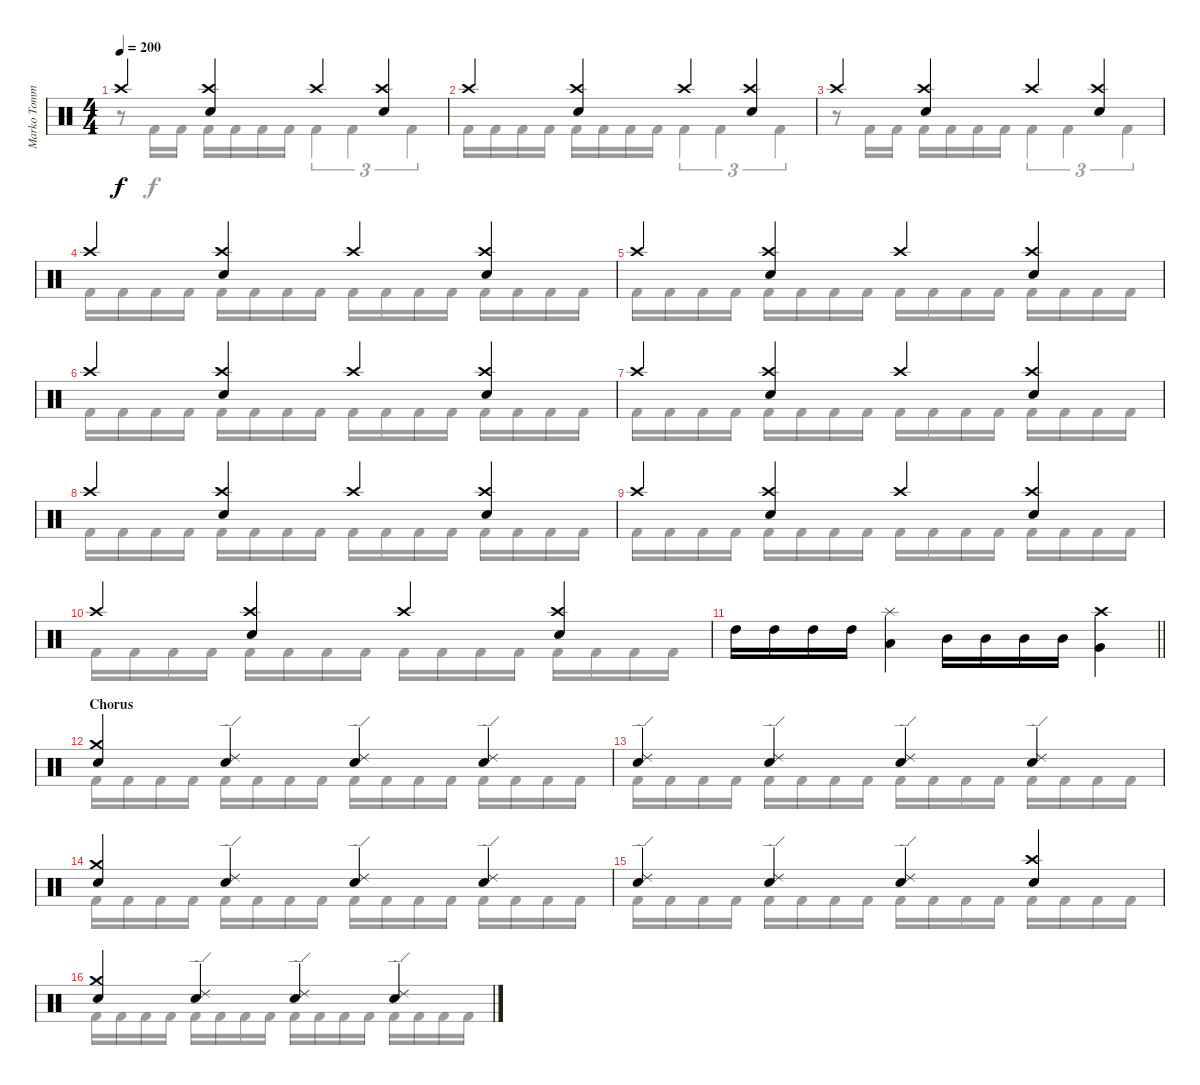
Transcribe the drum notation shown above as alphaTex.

\track ("Marko Tommila (drums)" "Marko Tomm") {instrument percussion}
\staff {score}
\articulation defaults
\voice
\ts (4 4)
\tempo 200
\clef neutral
\ks c "Crash high (hit)".4{dy f}
("Crash high (hit)" "Electric Snare (hit)").4 "Crash high (hit)".4 ("Crash high (hit)" "Electric Snare (hit)").4 |
"Crash high (hit)".4 ("Crash high (hit)" "Electric Snare (hit)").4 "Crash high (hit)".4 ("Crash high (hit)" "Electric Snare (hit)").4 |
"Crash high (hit)".4 ("Crash high (hit)" "Electric Snare (hit)").4 "Crash high (hit)".4 ("Crash high (hit)" "Electric Snare (hit)").4 |
"Crash high (hit)".4 ("Crash high (hit)" "Electric Snare (hit)").4 "Crash high (hit)".4 ("Crash high (hit)" "Electric Snare (hit)").4 |
"Crash high (hit)".4 ("Crash high (hit)" "Electric Snare (hit)").4 "Crash high (hit)".4 ("Crash high (hit)" "Electric Snare (hit)").4 |
"Crash high (hit)".4 ("Crash high (hit)" "Electric Snare (hit)").4 "Crash high (hit)".4 ("Crash high (hit)" "Electric Snare (hit)").4 |
"Crash high (hit)".4 ("Crash high (hit)" "Electric Snare (hit)").4 "Crash high (hit)".4 ("Crash high (hit)" "Electric Snare (hit)").4 |
"Crash high (hit)".4 ("Crash high (hit)" "Electric Snare (hit)").4 "Crash high (hit)".4 ("Crash high (hit)" "Electric Snare (hit)").4 |
"Crash high (hit)".4 ("Crash high (hit)" "Electric Snare (hit)").4 "Crash high (hit)".4 ("Crash high (hit)" "Electric Snare (hit)").4 |
"Crash high (hit)".4 ("Crash high (hit)" "Electric Snare (hit)").4 "Crash high (hit)".4 ("Crash high (hit)" "Electric Snare (hit)").4 |
\barLineRight lightlight "High Tom (hit)".16 "High Tom (hit)".16 "High Tom (hit)".16 "High Tom (hit)".16
("Splash (hit)" "Low Tom (hit)").4 "Mid Tom (hit)".16 "Mid Tom (hit)".16 "Mid Tom (hit)".16 "Mid Tom (hit)".16 ("Crash high (hit)" "Very Low Tom (hit)").4 |
\section ("" "Chorus")
\ks aminor
("Crash medium (hit)" "Electric Snare (hit)").4 ("Ride (edge) 2" "Electric Snare (hit)").4 ("Ride (edge) 2" "Electric Snare (hit)").4 ("Ride (edge) 2" "Electric Snare (hit)").4 |
("Ride (edge) 2" "Electric Snare (hit)").4 ("Ride (edge) 2" "Electric Snare (hit)").4 ("Ride (edge) 2" "Electric Snare (hit)").4 ("Ride (edge) 2" "Electric Snare (hit)").4 |
("Crash medium (hit)" "Electric Snare (hit)").4 ("Ride (edge) 2" "Electric Snare (hit)").4 ("Ride (edge) 2" "Electric Snare (hit)").4 ("Ride (edge) 2" "Electric Snare (hit)").4 |
("Ride (edge) 2" "Electric Snare (hit)").4 ("Ride (edge) 2" "Electric Snare (hit)").4 ("Ride (edge) 2" "Electric Snare (hit)").4 ("Crash high (hit)" "Electric Snare (hit)").4 |
("Crash medium (hit)" "Electric Snare (hit)").4 ("Ride (edge) 2" "Electric Snare (hit)").4 ("Ride (edge) 2" "Electric Snare (hit)").4 ("Ride (edge) 2" "Electric Snare (hit)").4
\voice
\clef neutral
\ottava regular
\simile none
\ks c
r.8{dy f} "Kick (hit) 2".16 "Kick (hit) 2".16 "Kick (hit) 2".16 "Kick (hit) 2".16 "Kick (hit) 2".16 "Kick (hit) 2".16 "Kick (hit) 2".4{tu (3 2)} "Kick (hit) 2".4{tu (3 2)} "Kick (hit) 2".4{tu (3 2)} |
"Kick (hit) 2".16 "Kick (hit) 2".16 "Kick (hit) 2".16 "Kick (hit) 2".16 "Kick (hit) 2".16 "Kick (hit) 2".16 "Kick (hit) 2".16 "Kick (hit) 2".16 "Kick (hit) 2".4{tu (3 2)} "Kick (hit) 2".4{tu (3 2)} "Kick (hit) 2".4{tu (3 2)} |
r.8 "Kick (hit) 2".16 "Kick (hit) 2".16 "Kick (hit) 2".16 "Kick (hit) 2".16 "Kick (hit) 2".16 "Kick (hit) 2".16 "Kick (hit) 2".4{tu (3 2)} "Kick (hit) 2".4{tu (3 2)} "Kick (hit) 2".4{tu (3 2)} |
"Kick (hit) 2".16 "Kick (hit) 2".16 "Kick (hit) 2".16 "Kick (hit) 2".16 "Kick (hit) 2".16 "Kick (hit) 2".16 "Kick (hit) 2".16 "Kick (hit) 2".16 "Kick (hit) 2".16 "Kick (hit) 2".16 "Kick (hit) 2".16 "Kick (hit) 2".16 "Kick (hit) 2".16 "Kick (hit) 2".16 "Kick (hit) 2".16 "Kick (hit) 2".16 |
"Kick (hit) 2".16 "Kick (hit) 2".16 "Kick (hit) 2".16 "Kick (hit) 2".16 "Kick (hit) 2".16 "Kick (hit) 2".16 "Kick (hit) 2".16 "Kick (hit) 2".16 "Kick (hit) 2".16 "Kick (hit) 2".16 "Kick (hit) 2".16 "Kick (hit) 2".16 "Kick (hit) 2".16 "Kick (hit) 2".16 "Kick (hit) 2".16 "Kick (hit) 2".16 |
"Kick (hit) 2".16 "Kick (hit) 2".16 "Kick (hit) 2".16 "Kick (hit) 2".16 "Kick (hit) 2".16 "Kick (hit) 2".16 "Kick (hit) 2".16 "Kick (hit) 2".16 "Kick (hit) 2".16 "Kick (hit) 2".16 "Kick (hit) 2".16 "Kick (hit) 2".16 "Kick (hit) 2".16 "Kick (hit) 2".16 "Kick (hit) 2".16 "Kick (hit) 2".16 |
"Kick (hit) 2".16 "Kick (hit) 2".16 "Kick (hit) 2".16 "Kick (hit) 2".16 "Kick (hit) 2".16 "Kick (hit) 2".16 "Kick (hit) 2".16 "Kick (hit) 2".16 "Kick (hit) 2".16 "Kick (hit) 2".16 "Kick (hit) 2".16 "Kick (hit) 2".16 "Kick (hit) 2".16 "Kick (hit) 2".16 "Kick (hit) 2".16 "Kick (hit) 2".16 |
"Kick (hit) 2".16 "Kick (hit) 2".16 "Kick (hit) 2".16 "Kick (hit) 2".16 "Kick (hit) 2".16 "Kick (hit) 2".16 "Kick (hit) 2".16 "Kick (hit) 2".16 "Kick (hit) 2".16 "Kick (hit) 2".16 "Kick (hit) 2".16 "Kick (hit) 2".16 "Kick (hit) 2".16 "Kick (hit) 2".16 "Kick (hit) 2".16 "Kick (hit) 2".16 |
"Kick (hit) 2".16 "Kick (hit) 2".16 "Kick (hit) 2".16 "Kick (hit) 2".16 "Kick (hit) 2".16 "Kick (hit) 2".16 "Kick (hit) 2".16 "Kick (hit) 2".16 "Kick (hit) 2".16 "Kick (hit) 2".16 "Kick (hit) 2".16 "Kick (hit) 2".16 "Kick (hit) 2".16 "Kick (hit) 2".16 "Kick (hit) 2".16 "Kick (hit) 2".16 |
"Kick (hit) 2".16 "Kick (hit) 2".16 "Kick (hit) 2".16 "Kick (hit) 2".16 "Kick (hit) 2".16 "Kick (hit) 2".16 "Kick (hit) 2".16 "Kick (hit) 2".16 "Kick (hit) 2".16 "Kick (hit) 2".16 "Kick (hit) 2".16 "Kick (hit) 2".16 "Kick (hit) 2".16 "Kick (hit) 2".16 "Kick (hit) 2".16 "Kick (hit) 2".16 |
\barLineRight lightlight
|
\ks aminor "Kick (hit) 2".16 "Kick (hit) 2".16 "Kick (hit) 2".16 "Kick (hit) 2".16 "Kick (hit) 2".16 "Kick (hit) 2".16 "Kick (hit) 2".16 "Kick (hit) 2".16 "Kick (hit) 2".16 "Kick (hit) 2".16 "Kick (hit) 2".16 "Kick (hit) 2".16 "Kick (hit) 2".16 "Kick (hit) 2".16 "Kick (hit) 2".16 "Kick (hit) 2".16
|
"Kick (hit) 2".16 "Kick (hit) 2".16 "Kick (hit) 2".16 "Kick (hit) 2".16 "Kick (hit) 2".16 "Kick (hit) 2".16 "Kick (hit) 2".16 "Kick (hit) 2".16 "Kick (hit) 2".16 "Kick (hit) 2".16 "Kick (hit) 2".16 "Kick (hit) 2".16 "Kick (hit) 2".16 "Kick (hit) 2".16 "Kick (hit) 2".16 "Kick (hit) 2".16 |
"Kick (hit) 2".16 "Kick (hit) 2".16 "Kick (hit) 2".16 "Kick (hit) 2".16 "Kick (hit) 2".16 "Kick (hit) 2".16 "Kick (hit) 2".16 "Kick (hit) 2".16 "Kick (hit) 2".16 "Kick (hit) 2".16 "Kick (hit) 2".16 "Kick (hit) 2".16 "Kick (hit) 2".16 "Kick (hit) 2".16 "Kick (hit) 2".16 "Kick (hit) 2".16 |
"Kick (hit) 2".16 "Kick (hit) 2".16 "Kick (hit) 2".16 "Kick (hit) 2".16 "Kick (hit) 2".16 "Kick (hit) 2".16 "Kick (hit) 2".16 "Kick (hit) 2".16 "Kick (hit) 2".16 "Kick (hit) 2".16 "Kick (hit) 2".16 "Kick (hit) 2".16 "Kick (hit) 2".16 "Kick (hit) 2".16 "Kick (hit) 2".16 "Kick (hit) 2".16 |
"Kick (hit) 2".16 "Kick (hit) 2".16 "Kick (hit) 2".16 "Kick (hit) 2".16 "Kick (hit) 2".16 "Kick (hit) 2".16 "Kick (hit) 2".16 "Kick (hit) 2".16 "Kick (hit) 2".16 "Kick (hit) 2".16 "Kick (hit) 2".16 "Kick (hit) 2".16 "Kick (hit) 2".16 "Kick (hit) 2".16 "Kick (hit) 2".16 "Kick (hit) 2".16
